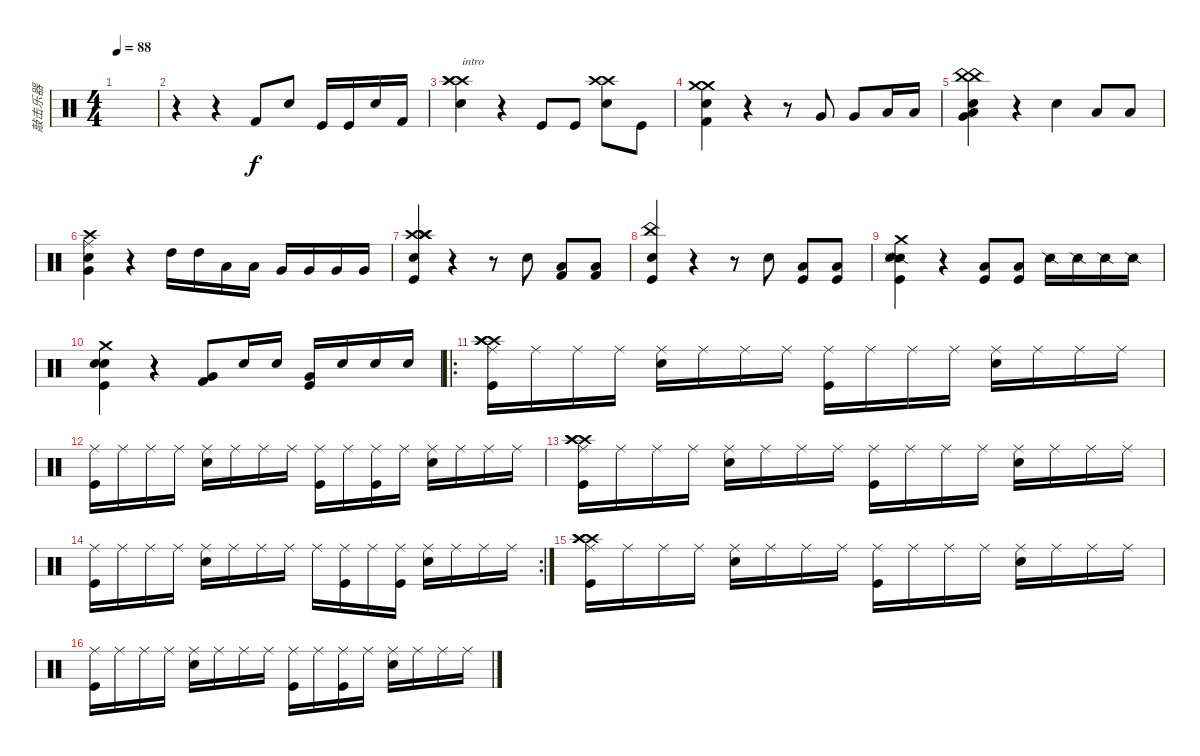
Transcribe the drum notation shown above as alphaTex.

\track ("敲击乐器" "敲击乐器") {instrument percussion}
\staff {score}
\articulation defaults
\ts (4 4)
\tempo 88
\clef neutral
\ks c
|
r.4 r.4 "Kick (hit) 2".8 "Metronome (bell)".8 "Kick (hit)".16 "Kick (hit)".16 "Metronome (bell)".16 "Kick (hit) 2".16 |
("Metronome (bell)" "Crash high (hit)" "Crash high (hit)" "Crash high (hit)").4{txt "intro"} r.4 "Kick (hit)".8 "Kick (hit)".8 ("Crash high (hit)" "Crash high (hit)" "Metronome (bell)").8 "Kick (hit)".8 |
("Crash medium (hit)" "Kick (hit) 2" "Metronome (bell)" "Crash medium (hit)").4 r.4 r.8 "Very Low Tom (hit)".8 "Very Low Tom (hit)".8 "Low Floor Tom (hit)".16 "Low Floor Tom (hit)".16 |
("Very Low Tom (hit)" "Low Floor Tom (hit)" "China (hit)" "China (hit)" "Metronome (bell)").4 r.4 "Electric Snare (hit)".4 "Low Tom (hit)".8 "Low Tom (hit)".8 |
("Crash high (hit)" "Ride (middle)" "Very Low Tom (hit)" "Metronome (bell)").4 r.4 "High Tom (hit)".16 "High Tom (hit)".16 "Low Tom (hit)".16 "Low Tom (hit)".16 "Very Low Tom (hit)".16 "Very Low Tom (hit)".16 "Very Low Tom (hit)".16 "Very Low Tom (hit)".16 |
("Kick (hit)" "Crash high (hit)" "Crash high (hit)" "Crash high (hit)" "Crash high (hit)" "Electric Snare (hit)").4 r.4 r.8 "Electric Snare (hit)".8 ("Low Floor Tom (hit)" "Kick (hit) 2").8 ("Low Floor Tom (hit)" "Kick (hit) 2").8 |
("China (hit)" "Electric Snare (hit)" "Kick (hit)").4 r.4 r.8 "Electric Snare (hit)".8 ("Low Floor Tom (hit)" "Kick (hit)").8 ("Low Floor Tom (hit)" "Kick (hit)").8 |
("Snare (side stick) 2" "Metronome (hit)" "Metronome (bell)" "Kick (hit)" "Crash medium (hit)").4 r.4 ("Low Tom (hit)" "Kick (hit)").8 ("Low Tom (hit)" "Kick (hit)").8 "Snare (side stick) 2".16 "Snare (side stick) 2".16 "Snare (side stick) 2".16 "Snare (side stick) 2".16 |
("Crash medium (hit)" "Metronome (bell)" "Kick (hit)" "Electric Snare (hit)").4 r.4 ("Very Low Tom (hit)" "Kick (hit) 2").8 "Metronome (bell)".16 "Metronome (bell)".16 ("Very Low Tom (hit)" "Kick (hit)").16 "Metronome (bell)".16 "Metronome (bell)".16 "Metronome (bell)".16 |
\ro
("Ride (middle)" "Kick (hit)" "Crash high (hit)" "Crash high (hit)" "Crash high (hit)").16 "Ride (middle)".16 "Ride (middle)".16 "Ride (middle)".16 ("Ride (middle)" "Electric Snare (hit)").16 "Ride (middle)".16 "Ride (middle)".16 "Ride (middle)".16 ("Ride (middle)" "Kick (hit)").16 "Ride (middle)".16 "Ride (middle)".16 "Ride (middle)".16 ("Ride (middle)" "Electric Snare (hit)").16 "Ride (middle)".16 "Ride (middle)".16 "Ride (middle)".16 |
("Ride (middle)" "Kick (hit)").16 "Ride (middle)".16 "Ride (middle)".16 "Ride (middle)".16 ("Ride (middle)" "Electric Snare (hit)").16 "Ride (middle)".16 "Ride (middle)".16 "Ride (middle)".16 ("Ride (middle)" "Kick (hit)").16 "Ride (middle)".16 ("Ride (middle)" "Kick (hit)").16 "Ride (middle)".16 ("Ride (middle)" "Electric Snare (hit)").16 "Ride (middle)".16 "Ride (middle)".16 "Ride (middle)".16 |
("Ride (middle)" "Kick (hit)" "Crash high (hit)" "Crash high (hit)" "Crash high (hit)").16 "Ride (middle)".16 "Ride (middle)".16 "Ride (middle)".16 ("Ride (middle)" "Electric Snare (hit)").16 "Ride (middle)".16 "Ride (middle)".16 "Ride (middle)".16 ("Ride (middle)" "Kick (hit)").16 "Ride (middle)".16 "Ride (middle)".16 "Ride (middle)".16 ("Ride (middle)" "Electric Snare (hit)").16 "Ride (middle)".16 "Ride (middle)".16 "Ride (middle)".16 |
\rc 2
("Ride (middle)" "Kick (hit)").16 "Ride (middle)".16 "Ride (middle)".16 "Ride (middle)".16 ("Ride (middle)" "Electric Snare (hit)").16 "Ride (middle)".16 "Ride (middle)".16 "Ride (middle)".16 "Ride (middle)".16 ("Ride (middle)" "Kick (hit)").16 "Ride (middle)".16 ("Ride (middle)" "Kick (hit)").16 ("Ride (middle)" "Electric Snare (hit)").16 "Ride (middle)".16 "Ride (middle)".16 "Ride (middle)".16 |
("Ride (middle)" "Kick (hit)" "Crash high (hit)" "Crash high (hit)" "Crash high (hit)").16 "Ride (middle)".16 "Ride (middle)".16 "Ride (middle)".16 ("Ride (middle)" "Electric Snare (hit)").16 "Ride (middle)".16 "Ride (middle)".16 "Ride (middle)".16 ("Ride (middle)" "Kick (hit)").16 "Ride (middle)".16 "Ride (middle)".16 "Ride (middle)".16 ("Ride (middle)" "Electric Snare (hit)").16 "Ride (middle)".16 "Ride (middle)".16 "Ride (middle)".16 |
("Ride (middle)" "Kick (hit)").16 "Ride (middle)".16 "Ride (middle)".16 "Ride (middle)".16 ("Ride (middle)" "Electric Snare (hit)").16 "Ride (middle)".16 "Ride (middle)".16 "Ride (middle)".16 ("Ride (middle)" "Kick (hit)").16 "Ride (middle)".16 ("Ride (middle)" "Kick (hit)").16 "Ride (middle)".16 ("Ride (middle)" "Electric Snare (hit)").16 "Ride (middle)".16 "Ride (middle)".16 "Ride (middle)".16
